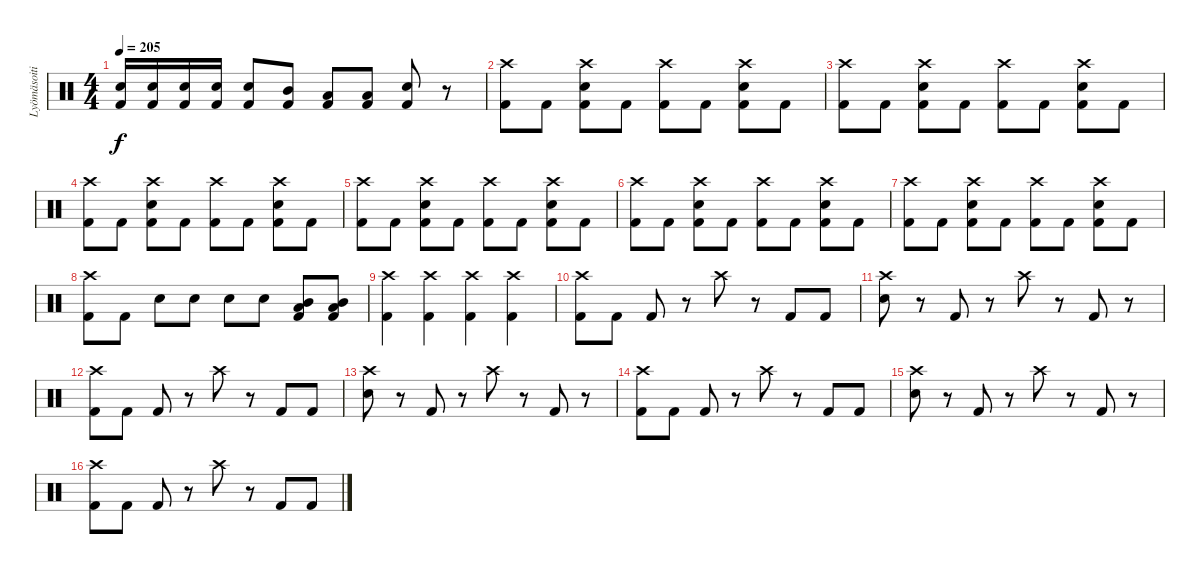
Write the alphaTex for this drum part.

\track ("Lyömäsoitin" "Lyömäsoiti") {instrument percussion}
\staff {score}
\articulation defaults
\ts (4 4)
\tempo 205
\clef neutral
\ks c
("Kick (hit) 2" "Electric Snare (hit)").16{dy f} ("Kick (hit) 2" "Electric Snare (hit)").16 ("Kick (hit) 2" "Electric Snare (hit)").16 ("Kick (hit) 2" "Electric Snare (hit)").16 ("Kick (hit) 2" "Electric Snare (hit)").8 ("Kick (hit) 2" "Mid Tom (hit)").8 ("Kick (hit) 2" "Low Tom (hit)").8 ("Kick (hit) 2" "Low Floor Tom (hit)").8 ("Kick (hit) 2" "Electric Snare (hit)").8 r.8 |
("Kick (hit) 2" "Crash high (hit)").8 "Kick (hit) 2".8 ("Kick (hit) 2" "Electric Snare (hit)" "Crash high (hit)").8 "Kick (hit) 2".8 ("Kick (hit) 2" "Crash high (hit)").8 "Kick (hit) 2".8 ("Kick (hit) 2" "Electric Snare (hit)" "Crash high (hit)").8 "Kick (hit) 2".8 |
("Kick (hit) 2" "Crash high (hit)").8 "Kick (hit) 2".8 ("Kick (hit) 2" "Electric Snare (hit)" "Crash high (hit)").8 "Kick (hit) 2".8 ("Kick (hit) 2" "Crash high (hit)").8 "Kick (hit) 2".8 ("Kick (hit) 2" "Electric Snare (hit)" "Crash high (hit)").8 "Kick (hit) 2".8 |
("Kick (hit) 2" "Crash high (hit)").8 "Kick (hit) 2".8 ("Kick (hit) 2" "Electric Snare (hit)" "Crash high (hit)").8 "Kick (hit) 2".8 ("Kick (hit) 2" "Crash high (hit)").8 "Kick (hit) 2".8 ("Kick (hit) 2" "Electric Snare (hit)" "Crash high (hit)").8 "Kick (hit) 2".8 |
("Kick (hit) 2" "Crash high (hit)").8 "Kick (hit) 2".8 ("Kick (hit) 2" "Electric Snare (hit)" "Crash high (hit)").8 "Kick (hit) 2".8 ("Kick (hit) 2" "Crash high (hit)").8 "Kick (hit) 2".8 ("Kick (hit) 2" "Electric Snare (hit)" "Crash high (hit)").8 "Kick (hit) 2".8 |
("Kick (hit) 2" "Crash high (hit)").8 "Kick (hit) 2".8 ("Kick (hit) 2" "Electric Snare (hit)" "Crash high (hit)").8 "Kick (hit) 2".8 ("Kick (hit) 2" "Crash high (hit)").8 "Kick (hit) 2".8 ("Kick (hit) 2" "Electric Snare (hit)" "Crash high (hit)").8 "Kick (hit) 2".8 |
("Kick (hit) 2" "Crash high (hit)").8 "Kick (hit) 2".8 ("Kick (hit) 2" "Electric Snare (hit)" "Crash high (hit)").8 "Kick (hit) 2".8 ("Kick (hit) 2" "Crash high (hit)").8 "Kick (hit) 2".8 ("Kick (hit) 2" "Electric Snare (hit)" "Crash high (hit)").8 "Kick (hit) 2".8 |
("Kick (hit) 2" "Crash high (hit)").8 "Kick (hit) 2".8 "Electric Snare (hit)".8 "Electric Snare (hit)".8 "Electric Snare (hit)".8 "Electric Snare (hit)".8 ("Kick (hit) 2" "Mid Tom (hit)" "Low Tom (hit)").8 ("Kick (hit) 2" "Mid Tom (hit)" "Low Tom (hit)").8 |
("Kick (hit) 2" "Crash high (hit)").4 ("Kick (hit) 2" "Crash high (hit)").4 ("Kick (hit) 2" "Crash high (hit)").4 ("Kick (hit) 2" "Crash high (hit)").4 |
("Kick (hit) 2" "Crash high (hit)").8 "Kick (hit) 2".8 "Kick (hit) 2".8 r.8 "Crash high (hit)".8 r.8 "Kick (hit) 2".8 "Kick (hit) 2".8 |
("Electric Snare (hit)" "Crash high (hit)").8 r.8 "Kick (hit) 2".8 r.8 "Crash high (hit)".8 r.8 "Kick (hit) 2".8 r.8 |
("Kick (hit) 2" "Crash high (hit)").8 "Kick (hit) 2".8 "Kick (hit) 2".8 r.8 "Crash high (hit)".8 r.8 "Kick (hit) 2".8 "Kick (hit) 2".8 |
("Electric Snare (hit)" "Crash high (hit)").8 r.8 "Kick (hit) 2".8 r.8 "Crash high (hit)".8 r.8 "Kick (hit) 2".8 r.8 |
("Kick (hit) 2" "Crash high (hit)").8 "Kick (hit) 2".8 "Kick (hit) 2".8 r.8 "Crash high (hit)".8 r.8 "Kick (hit) 2".8 "Kick (hit) 2".8 |
("Electric Snare (hit)" "Crash high (hit)").8 r.8 "Kick (hit) 2".8 r.8 "Crash high (hit)".8 r.8 "Kick (hit) 2".8 r.8 |
("Kick (hit) 2" "Crash high (hit)").8 "Kick (hit) 2".8 "Kick (hit) 2".8 r.8 "Crash high (hit)".8 r.8 "Kick (hit) 2".8 "Kick (hit) 2".8
